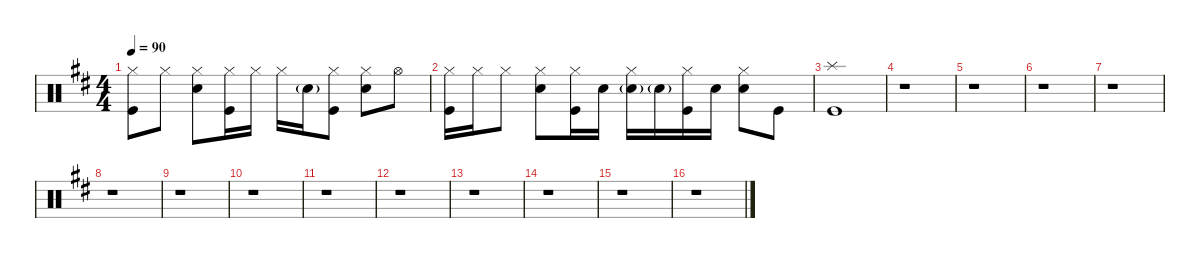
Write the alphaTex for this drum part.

\defaultSystemsLayout 4
\hideDynamics
\bracketExtendMode nobrackets
\singleTrackTrackNamePolicy hidden
\multiTrackTrackNamePolicy hidden
\otherSystemsTrackNameOrientation horizontal
\track ("Drums" "drm.") {instrument percussion}
\staff {score}
\articulation defaults
\ts (4 4)
\tempo 90
\clef neutral
\ks bminor
("Kick (hit)"{acc forcenatural} "Hi-Hat (closed)"{acc forcenatural}).8{dy p beam Down} "Hi-Hat (closed)"{acc forcenatural}.8{dy ppp beam Down} ("Snare (hit) 2"{acc forcenatural} "Hi-Hat (closed)"{acc forcenatural}).8{dy mp beam Down} ("Kick (hit)"{acc forcenatural} "Hi-Hat (closed)"{acc forcenatural}).16{dy p beam Down} "Hi-Hat (closed)"{acc forcenatural}.16{dy ppp beam Down} "Hi-Hat (closed)"{acc forcenatural}.16{beam Down} "Snare (hit) 2"{g acc forcenatural}.16{dy mp beam Down} ("Kick (hit)"{acc forcenatural} "Hi-Hat (closed)"{acc forcenatural}).8{dy p beam Down} ("Snare (hit) 2"{acc forcenatural} "Hi-Hat (closed)"{acc forcenatural}).8{dy mp beam Down} "Hi-Hat (open)"{acc forcenatural}.8{dy pp beam Down} |
("Kick (hit)"{acc forcenatural} "Hi-Hat (closed)"{acc forcenatural}).16{dy mp beam Down} "Hi-Hat (closed)"{acc forcenatural}.16{dy ppp beam Down} "Hi-Hat (closed)"{acc forcenatural}.8{beam Down} ("Snare (hit) 2"{acc forcenatural} "Hi-Hat (closed)"{acc forcenatural}).8{dy mp beam Down} ("Kick (hit)"{acc forcenatural} "Hi-Hat (closed)"{acc forcenatural}).16{dy p beam Down} "Snare (hit) 2"{acc forcenatural}.16{dy pp beam Down} ("Snare (hit) 2"{g acc forcenatural} "Hi-Hat (closed)"{acc forcenatural}).16{dy ppp beam Down} "Snare (hit) 2"{g acc forcenatural}.16{dy p beam Down} ("Kick (hit)"{acc forcenatural} "Hi-Hat (closed)"{acc forcenatural}).16{beam Down} "Snare (hit) 2"{acc forcenatural}.16{beam Down} ("Snare (hit) 2"{acc forcenatural} "Hi-Hat (closed)"{acc forcenatural}).8{beam Down} "Kick (hit)"{acc forcenatural}.8{beam Down} |
("Kick (hit)"{acc forcenatural} "Splash (hit)"{acc forcenatural}).1{beam Down} |
r.1{beam Down} |
r.1{beam Down} |
r.1{beam Down} |
r.1{beam Down} |
r.1{beam Down} |
r.1{beam Down} |
r.1{beam Down} |
r.1{beam Down} |
r.1{beam Down} |
r.1{beam Down} |
r.1{beam Down} |
r.1{beam Down} |
r.1{beam Down}
